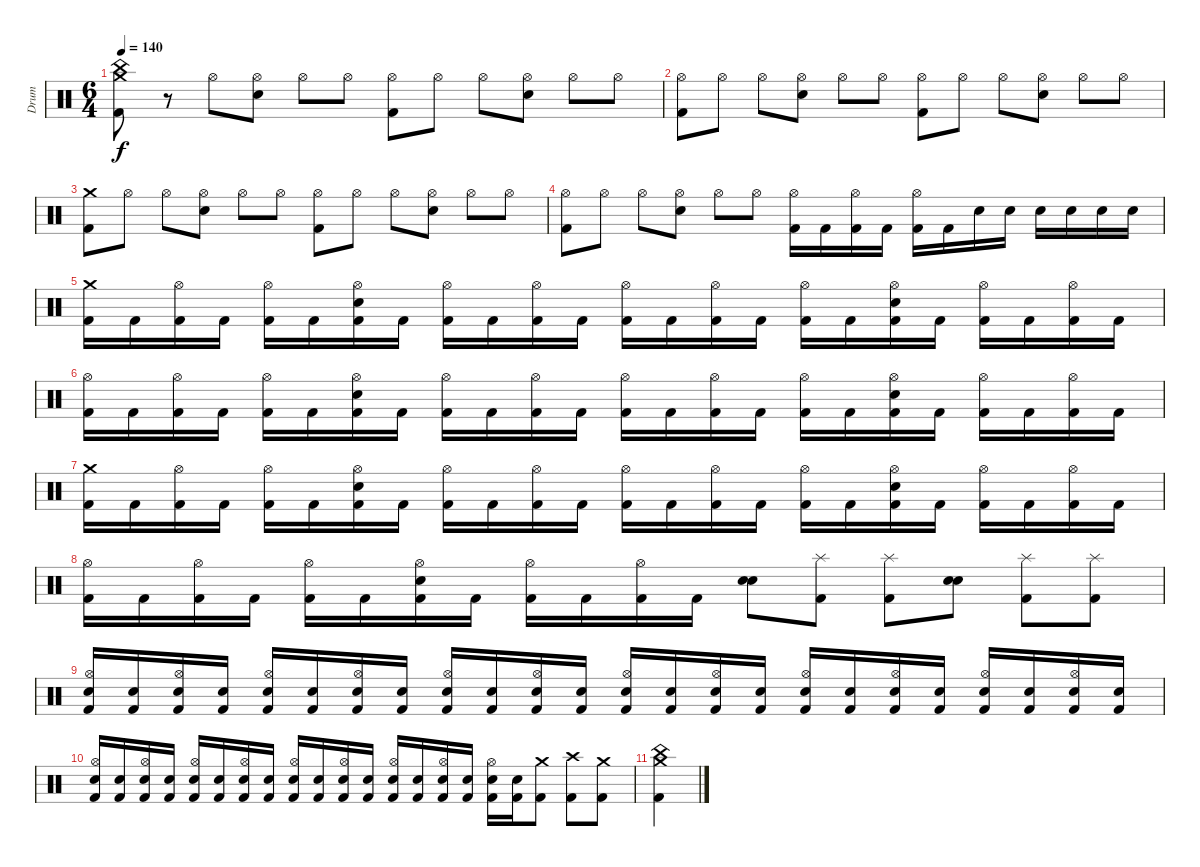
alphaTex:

\track ("Drum" "Drum") {instrument percussion}
\staff {score}
\articulation defaults
\ts (6 4)
\tempo 140
\clef neutral
\ks c
("China (hit)" "Crash medium (hit)" "Kick (hit) 2").8{dy f} r.8 "Hi-Hat (open)".8 ("Hi-Hat (open)" "Snare (hit) 2").8 "Hi-Hat (open)".8 "Hi-Hat (open)".8 ("Hi-Hat (open)" "Kick (hit) 2").8 "Hi-Hat (open)".8 "Hi-Hat (open)".8 ("Hi-Hat (open)" "Snare (hit) 2").8 "Hi-Hat (open)".8 "Hi-Hat (open)".8 |
("Hi-Hat (open)" "Kick (hit) 2").8 "Hi-Hat (open)".8 "Hi-Hat (open)".8 ("Hi-Hat (open)" "Snare (hit) 2").8 "Hi-Hat (open)".8 "Hi-Hat (open)".8 ("Hi-Hat (open)" "Kick (hit) 2").8 "Hi-Hat (open)".8 "Hi-Hat (open)".8 ("Hi-Hat (open)" "Snare (hit) 2").8 "Hi-Hat (open)".8 "Hi-Hat (open)".8 |
("Crash medium (hit)" "Kick (hit) 2").8 "Hi-Hat (open)".8 "Hi-Hat (open)".8 ("Hi-Hat (open)" "Snare (hit) 2").8 "Hi-Hat (open)".8 "Hi-Hat (open)".8 ("Hi-Hat (open)" "Kick (hit) 2").8 "Hi-Hat (open)".8 "Hi-Hat (open)".8 ("Hi-Hat (open)" "Snare (hit) 2").8 "Hi-Hat (open)".8 "Hi-Hat (open)".8 |
("Hi-Hat (open)" "Kick (hit) 2").8 "Hi-Hat (open)".8 "Hi-Hat (open)".8 ("Hi-Hat (open)" "Snare (hit) 2").8 "Hi-Hat (open)".8 "Hi-Hat (open)".8 ("Hi-Hat (open)" "Kick (hit) 2").16 "Kick (hit) 2".16 ("Hi-Hat (open)" "Kick (hit) 2").16 "Kick (hit) 2".16 ("Hi-Hat (open)" "Kick (hit) 2").16 "Kick (hit) 2".16 "Snare (hit) 2".16 "Snare (hit) 2".16 "Snare (hit) 2".16 "Snare (hit) 2".16 "Snare (hit) 2".16 "Snare (hit) 2".16 |
("Crash medium (hit)" "Kick (hit) 2").16 "Kick (hit) 2".16 ("Hi-Hat (open)" "Kick (hit) 2").16 "Kick (hit) 2".16 ("Hi-Hat (open)" "Kick (hit) 2").16 "Kick (hit) 2".16 ("Hi-Hat (open)" "Snare (hit) 2" "Kick (hit) 2").16 "Kick (hit) 2".16 ("Hi-Hat (open)" "Kick (hit) 2").16 "Kick (hit) 2".16 ("Hi-Hat (open)" "Kick (hit) 2").16 "Kick (hit) 2".16 ("Hi-Hat (open)" "Kick (hit) 2").16 "Kick (hit) 2".16 ("Hi-Hat (open)" "Kick (hit) 2").16 "Kick (hit) 2".16 ("Hi-Hat (open)" "Kick (hit) 2").16 "Kick (hit) 2".16 ("Hi-Hat (open)" "Snare (hit) 2" "Kick (hit) 2").16 "Kick (hit) 2".16 ("Hi-Hat (open)" "Kick (hit) 2").16 "Kick (hit) 2".16 ("Hi-Hat (open)" "Kick (hit) 2").16 "Kick (hit) 2".16 |
("Hi-Hat (open)" "Kick (hit) 2").16 "Kick (hit) 2".16 ("Hi-Hat (open)" "Kick (hit) 2").16 "Kick (hit) 2".16 ("Hi-Hat (open)" "Kick (hit) 2").16 "Kick (hit) 2".16 ("Hi-Hat (open)" "Snare (hit) 2" "Kick (hit) 2").16 "Kick (hit) 2".16 ("Hi-Hat (open)" "Kick (hit) 2").16 "Kick (hit) 2".16 ("Hi-Hat (open)" "Kick (hit) 2").16 "Kick (hit) 2".16 ("Hi-Hat (open)" "Kick (hit) 2").16 "Kick (hit) 2".16 ("Hi-Hat (open)" "Kick (hit) 2").16 "Kick (hit) 2".16 ("Hi-Hat (open)" "Kick (hit) 2").16 "Kick (hit) 2".16 ("Hi-Hat (open)" "Snare (hit) 2" "Kick (hit) 2").16 "Kick (hit) 2".16 ("Hi-Hat (open)" "Kick (hit) 2").16 "Kick (hit) 2".16 ("Hi-Hat (open)" "Kick (hit) 2").16 "Kick (hit) 2".16 |
("Crash medium (hit)" "Kick (hit) 2").16 "Kick (hit) 2".16 ("Hi-Hat (open)" "Kick (hit) 2").16 "Kick (hit) 2".16 ("Hi-Hat (open)" "Kick (hit) 2").16 "Kick (hit) 2".16 ("Hi-Hat (open)" "Snare (hit) 2" "Kick (hit) 2").16 "Kick (hit) 2".16 ("Hi-Hat (open)" "Kick (hit) 2").16 "Kick (hit) 2".16 ("Hi-Hat (open)" "Kick (hit) 2").16 "Kick (hit) 2".16 ("Hi-Hat (open)" "Kick (hit) 2").16 "Kick (hit) 2".16 ("Hi-Hat (open)" "Kick (hit) 2").16 "Kick (hit) 2".16 ("Hi-Hat (open)" "Kick (hit) 2").16 "Kick (hit) 2".16 ("Hi-Hat (open)" "Snare (hit) 2" "Kick (hit) 2").16 "Kick (hit) 2".16 ("Hi-Hat (open)" "Kick (hit) 2").16 "Kick (hit) 2".16 ("Hi-Hat (open)" "Kick (hit) 2").16 "Kick (hit) 2".16 |
("Hi-Hat (open)" "Kick (hit) 2").16 "Kick (hit) 2".16 ("Hi-Hat (open)" "Kick (hit) 2").16 "Kick (hit) 2".16 ("Hi-Hat (open)" "Kick (hit) 2").16 "Kick (hit) 2".16 ("Hi-Hat (open)" "Snare (hit) 2" "Kick (hit) 2").16 "Kick (hit) 2".16 ("Hi-Hat (open)" "Kick (hit) 2").16 "Kick (hit) 2".16 ("Hi-Hat (open)" "Kick (hit) 2").16 "Kick (hit) 2".16 ("Snare (hit) 2" "Snare (hit) 2").8 ("Splash (hit)" "Kick (hit) 2").8 ("Splash (hit)" "Kick (hit) 2").8 ("Snare (hit) 2" "Snare (hit) 2").8 ("Splash (hit)" "Kick (hit) 2").8 ("Splash (hit)" "Kick (hit) 2").8 |
("Hi-Hat (open)" "Snare (hit) 2" "Kick (hit) 2").16 ("Snare (hit) 2" "Kick (hit) 2").16 ("Hi-Hat (open)" "Snare (hit) 2" "Kick (hit) 2").16 ("Snare (hit) 2" "Kick (hit) 2").16 ("Hi-Hat (open)" "Snare (hit) 2" "Kick (hit) 2").16 ("Snare (hit) 2" "Kick (hit) 2").16 ("Hi-Hat (open)" "Snare (hit) 2" "Kick (hit) 2").16 ("Snare (hit) 2" "Kick (hit) 2").16 ("Hi-Hat (open)" "Snare (hit) 2" "Kick (hit) 2").16 ("Snare (hit) 2" "Kick (hit) 2").16 ("Hi-Hat (open)" "Snare (hit) 2" "Kick (hit) 2").16 ("Snare (hit) 2" "Kick (hit) 2").16 ("Hi-Hat (open)" "Snare (hit) 2" "Kick (hit) 2").16 ("Snare (hit) 2" "Kick (hit) 2").16 ("Hi-Hat (open)" "Snare (hit) 2" "Kick (hit) 2").16 ("Snare (hit) 2" "Kick (hit) 2").16 ("Hi-Hat (open)" "Snare (hit) 2" "Kick (hit) 2").16 ("Snare (hit) 2" "Kick (hit) 2").16 ("Hi-Hat (open)" "Snare (hit) 2" "Kick (hit) 2").16 ("Snare (hit) 2" "Kick (hit) 2").16 ("Hi-Hat (open)" "Snare (hit) 2" "Kick (hit) 2").16 ("Snare (hit) 2" "Kick (hit) 2").16 ("Hi-Hat (open)" "Snare (hit) 2" "Kick (hit) 2").16 ("Snare (hit) 2" "Kick (hit) 2").16 |
("Hi-Hat (open)" "Snare (hit) 2" "Kick (hit) 2").16 ("Snare (hit) 2" "Kick (hit) 2").16 ("Hi-Hat (open)" "Snare (hit) 2" "Kick (hit) 2").16 ("Snare (hit) 2" "Kick (hit) 2").16 ("Hi-Hat (open)" "Snare (hit) 2" "Kick (hit) 2").16 ("Snare (hit) 2" "Kick (hit) 2").16 ("Hi-Hat (open)" "Snare (hit) 2" "Kick (hit) 2").16 ("Snare (hit) 2" "Kick (hit) 2").16 ("Hi-Hat (open)" "Snare (hit) 2" "Kick (hit) 2").16 ("Snare (hit) 2" "Kick (hit) 2").16 ("Hi-Hat (open)" "Snare (hit) 2" "Kick (hit) 2").16 ("Snare (hit) 2" "Kick (hit) 2").16 ("Hi-Hat (open)" "Snare (hit) 2" "Kick (hit) 2").16 ("Snare (hit) 2" "Kick (hit) 2").16 ("Hi-Hat (open)" "Snare (hit) 2" "Kick (hit) 2").16 ("Snare (hit) 2" "Kick (hit) 2").16 ("Hi-Hat (open)" "Snare (hit) 2" "Kick (hit) 2").16 ("Snare (hit) 2" "Kick (hit) 2").16 ("Crash medium (hit)" "Kick (hit) 2").8 ("Crash high (hit)" "Kick (hit) 2").8 ("Crash medium (hit)" "Kick (hit) 2").8 |
("China (hit)" "Crash medium (hit)" "Kick (hit) 2").4
